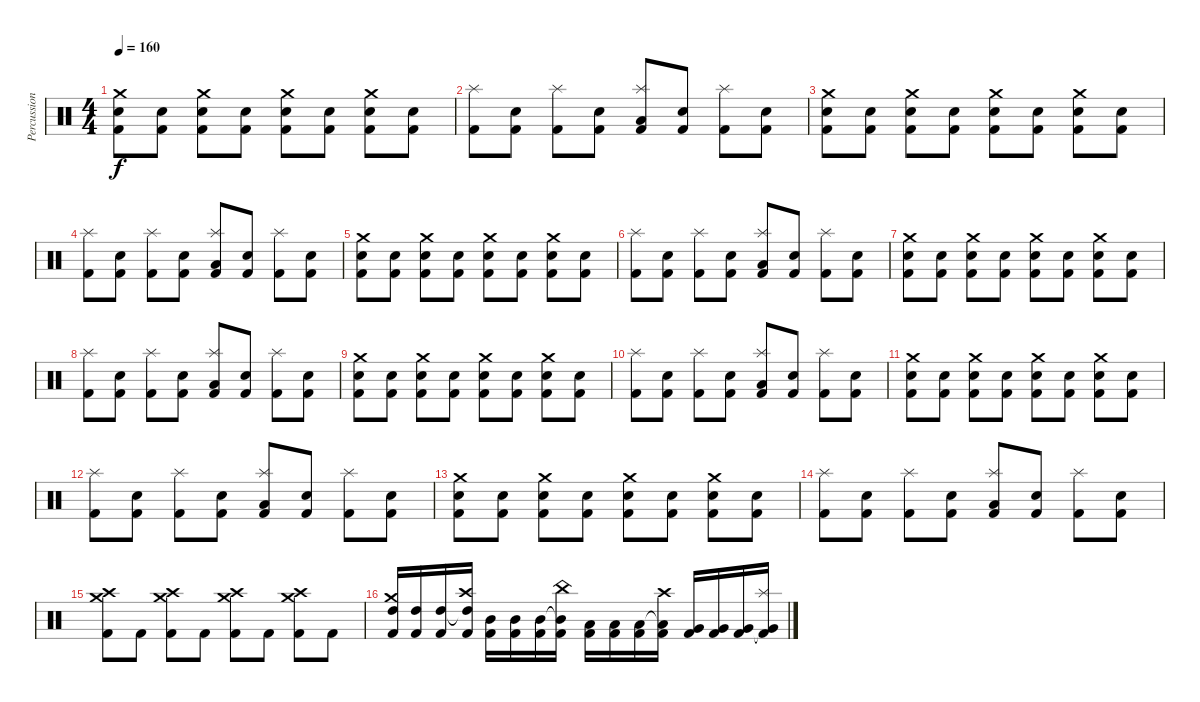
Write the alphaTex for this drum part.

\track ("Percussion" "Percussion") {instrument percussion}
\staff {score}
\articulation defaults
\ts (4 4)
\tempo 160
\clef neutral
\ks c
("Kick (hit) 2" "Snare (hit) 2" "Crash medium (hit)").8{dy f} ("Kick (hit) 2" "Snare (hit) 2").8 ("Kick (hit) 2" "Snare (hit) 2" "Crash medium (hit)").8 ("Kick (hit) 2" "Snare (hit) 2").8 ("Kick (hit) 2" "Snare (hit) 2" "Crash medium (hit)").8 ("Kick (hit) 2" "Snare (hit) 2").8 ("Kick (hit) 2" "Snare (hit) 2" "Crash medium (hit)").8 ("Kick (hit) 2" "Snare (hit) 2").8 |
("Kick (hit) 2" "Splash (hit)").8 ("Kick (hit) 2" "Snare (hit) 2").8 ("Kick (hit) 2" "Splash (hit)").8 ("Kick (hit) 2" "Snare (hit) 2").8 ("Kick (hit) 2" "Low Tom (hit)" "Splash (hit)").8 ("Kick (hit) 2" "Snare (hit) 2").8 ("Kick (hit) 2" "Splash (hit)").8 ("Kick (hit) 2" "Snare (hit) 2").8 |
("Kick (hit) 2" "Snare (hit) 2" "Crash medium (hit)").8 ("Kick (hit) 2" "Snare (hit) 2").8 ("Kick (hit) 2" "Snare (hit) 2" "Crash medium (hit)").8 ("Kick (hit) 2" "Snare (hit) 2").8 ("Kick (hit) 2" "Snare (hit) 2" "Crash medium (hit)").8 ("Kick (hit) 2" "Snare (hit) 2").8 ("Kick (hit) 2" "Snare (hit) 2" "Crash medium (hit)").8 ("Kick (hit) 2" "Snare (hit) 2").8 |
("Kick (hit) 2" "Splash (hit)").8 ("Kick (hit) 2" "Snare (hit) 2").8 ("Kick (hit) 2" "Splash (hit)").8 ("Kick (hit) 2" "Snare (hit) 2").8 ("Kick (hit) 2" "Low Tom (hit)" "Splash (hit)").8 ("Kick (hit) 2" "Snare (hit) 2").8 ("Kick (hit) 2" "Splash (hit)").8 ("Kick (hit) 2" "Snare (hit) 2").8 |
("Kick (hit) 2" "Snare (hit) 2" "Crash medium (hit)").8 ("Kick (hit) 2" "Snare (hit) 2").8 ("Kick (hit) 2" "Snare (hit) 2" "Crash medium (hit)").8 ("Kick (hit) 2" "Snare (hit) 2").8 ("Kick (hit) 2" "Snare (hit) 2" "Crash medium (hit)").8 ("Kick (hit) 2" "Snare (hit) 2").8 ("Kick (hit) 2" "Snare (hit) 2" "Crash medium (hit)").8 ("Kick (hit) 2" "Snare (hit) 2").8 |
("Kick (hit) 2" "Splash (hit)").8 ("Kick (hit) 2" "Snare (hit) 2").8 ("Kick (hit) 2" "Splash (hit)").8 ("Kick (hit) 2" "Snare (hit) 2").8 ("Kick (hit) 2" "Low Tom (hit)" "Splash (hit)").8 ("Kick (hit) 2" "Snare (hit) 2").8 ("Kick (hit) 2" "Splash (hit)").8 ("Kick (hit) 2" "Snare (hit) 2").8 |
("Kick (hit) 2" "Snare (hit) 2" "Crash medium (hit)").8 ("Kick (hit) 2" "Snare (hit) 2").8 ("Kick (hit) 2" "Snare (hit) 2" "Crash medium (hit)").8 ("Kick (hit) 2" "Snare (hit) 2").8 ("Kick (hit) 2" "Snare (hit) 2" "Crash medium (hit)").8 ("Kick (hit) 2" "Snare (hit) 2").8 ("Kick (hit) 2" "Snare (hit) 2" "Crash medium (hit)").8 ("Kick (hit) 2" "Snare (hit) 2").8 |
("Kick (hit) 2" "Splash (hit)").8 ("Kick (hit) 2" "Snare (hit) 2").8 ("Kick (hit) 2" "Splash (hit)").8 ("Kick (hit) 2" "Snare (hit) 2").8 ("Kick (hit) 2" "Low Tom (hit)" "Splash (hit)").8 ("Kick (hit) 2" "Snare (hit) 2").8 ("Kick (hit) 2" "Splash (hit)").8 ("Kick (hit) 2" "Snare (hit) 2").8 |
("Kick (hit) 2" "Snare (hit) 2" "Crash medium (hit)").8 ("Kick (hit) 2" "Snare (hit) 2").8 ("Kick (hit) 2" "Snare (hit) 2" "Crash medium (hit)").8 ("Kick (hit) 2" "Snare (hit) 2").8 ("Kick (hit) 2" "Snare (hit) 2" "Crash medium (hit)").8 ("Kick (hit) 2" "Snare (hit) 2").8 ("Kick (hit) 2" "Snare (hit) 2" "Crash medium (hit)").8 ("Kick (hit) 2" "Snare (hit) 2").8 |
("Kick (hit) 2" "Splash (hit)").8 ("Kick (hit) 2" "Snare (hit) 2").8 ("Kick (hit) 2" "Splash (hit)").8 ("Kick (hit) 2" "Snare (hit) 2").8 ("Kick (hit) 2" "Low Tom (hit)" "Splash (hit)").8 ("Kick (hit) 2" "Snare (hit) 2").8 ("Kick (hit) 2" "Splash (hit)").8 ("Kick (hit) 2" "Snare (hit) 2").8 |
("Kick (hit) 2" "Snare (hit) 2" "Crash medium (hit)").8 ("Kick (hit) 2" "Snare (hit) 2").8 ("Kick (hit) 2" "Snare (hit) 2" "Crash medium (hit)").8 ("Kick (hit) 2" "Snare (hit) 2").8 ("Kick (hit) 2" "Snare (hit) 2" "Crash medium (hit)").8 ("Kick (hit) 2" "Snare (hit) 2").8 ("Kick (hit) 2" "Snare (hit) 2" "Crash medium (hit)").8 ("Kick (hit) 2" "Snare (hit) 2").8 |
("Kick (hit) 2" "Splash (hit)").8 ("Kick (hit) 2" "Snare (hit) 2").8 ("Kick (hit) 2" "Splash (hit)").8 ("Kick (hit) 2" "Snare (hit) 2").8 ("Kick (hit) 2" "Low Tom (hit)" "Splash (hit)").8 ("Kick (hit) 2" "Snare (hit) 2").8 ("Kick (hit) 2" "Splash (hit)").8 ("Kick (hit) 2" "Snare (hit) 2").8 |
("Kick (hit) 2" "Snare (hit) 2" "Crash medium (hit)").8 ("Kick (hit) 2" "Snare (hit) 2").8 ("Kick (hit) 2" "Snare (hit) 2" "Crash medium (hit)").8 ("Kick (hit) 2" "Snare (hit) 2").8 ("Kick (hit) 2" "Snare (hit) 2" "Crash medium (hit)").8 ("Kick (hit) 2" "Snare (hit) 2").8 ("Kick (hit) 2" "Snare (hit) 2" "Crash medium (hit)").8 ("Kick (hit) 2" "Snare (hit) 2").8 |
("Kick (hit) 2" "Splash (hit)").8 ("Kick (hit) 2" "Snare (hit) 2").8 ("Kick (hit) 2" "Splash (hit)").8 ("Kick (hit) 2" "Snare (hit) 2").8 ("Kick (hit) 2" "Low Tom (hit)" "Splash (hit)").8 ("Kick (hit) 2" "Snare (hit) 2").8 ("Kick (hit) 2" "Splash (hit)").8 ("Kick (hit) 2" "Snare (hit) 2").8 |
("Kick (hit) 2" "Crash medium (hit)" "Crash high (hit)").8 "Kick (hit) 2".8 ("Kick (hit) 2" "Crash medium (hit)" "Crash high (hit)").8 "Kick (hit) 2".8 ("Kick (hit) 2" "Crash medium (hit)" "Crash high (hit)").8 "Kick (hit) 2".8 ("Kick (hit) 2" "Crash medium (hit)" "Crash high (hit)").8 "Kick (hit) 2".8 |
("Kick (hit) 2" "High Tom (hit)" "Crash medium (hit)").16 ("Kick (hit) 2" "High Tom (hit)").16 ("Kick (hit) 2" "High Tom (hit)").16 ("Kick (hit) 2" "High Tom (hit)"{t} "Crash high (hit)").16 ("Kick (hit) 2" "Mid Tom (hit)").16 ("Kick (hit) 2" "Mid Tom (hit)").16 ("Kick (hit) 2" "Mid Tom (hit)").16 ("Kick (hit) 2" "Mid Tom (hit)"{t} "China (hit)").16 ("Kick (hit) 2" "Low Tom (hit)").16 ("Kick (hit) 2" "Low Tom (hit)").16 ("Kick (hit) 2" "Low Tom (hit)").16 ("Kick (hit) 2" "Low Tom (hit)"{t} "Crash high (hit)").16 ("Kick (hit) 2" "Very Low Tom (hit)").16 ("Kick (hit) 2" "Very Low Tom (hit)").16 ("Kick (hit) 2" "Very Low Tom (hit)").16 ("Kick (hit) 2" "Very Low Tom (hit)"{t} "Splash (hit)").16
